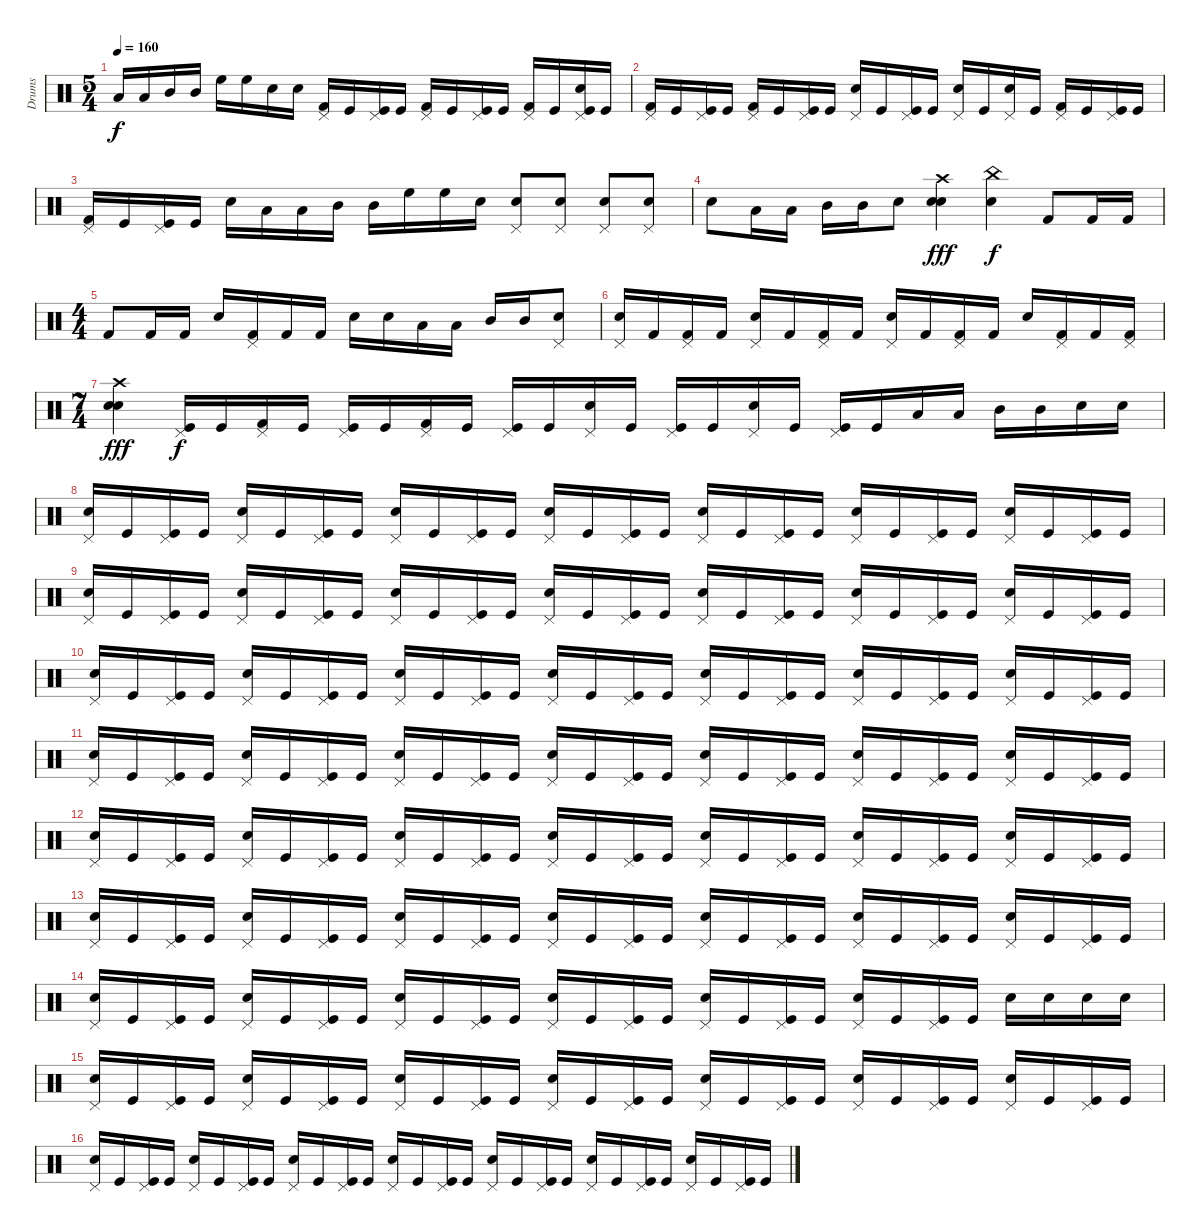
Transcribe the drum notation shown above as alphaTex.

\track ("Drums" "Drums") {instrument percussion}
\staff {score}
\articulation defaults
\ts (5 4)
\tempo 160
\clef neutral
\ks c "Low Tom (hit)".16{dy f} "Low Tom (hit)".16 "Mid Tom (hit)".16 "Mid Tom (hit)".16 "High Floor Tom (hit)".16 "High Floor Tom (hit)".16 "Electric Snare (hit)".16 "Electric Snare (hit)".16
("Pedal Hi-Hat (hit)" "Kick (hit) 2").16 "Kick (hit)".16 ("Pedal Hi-Hat (hit)" "Kick (hit)").16 "Kick (hit)".16 ("Pedal Hi-Hat (hit)" "Kick (hit) 2").16 "Kick (hit)".16 ("Pedal Hi-Hat (hit)" "Kick (hit)").16 "Kick (hit)".16 ("Pedal Hi-Hat (hit)" "Kick (hit) 2").16 "Kick (hit)".16 ("Pedal Hi-Hat (hit)" "Electric Snare (hit)" "Kick (hit)").16 "Kick (hit)".16 |
("Pedal Hi-Hat (hit)" "Kick (hit) 2").16 "Kick (hit)".16 ("Pedal Hi-Hat (hit)" "Kick (hit)").16 "Kick (hit)".16 ("Pedal Hi-Hat (hit)" "Kick (hit) 2").16 "Kick (hit)".16 ("Pedal Hi-Hat (hit)" "Kick (hit)").16 "Kick (hit)".16 ("Pedal Hi-Hat (hit)" "Electric Snare (hit)").16 "Kick (hit)".16 ("Pedal Hi-Hat (hit)" "Kick (hit)").16 "Kick (hit)".16 ("Pedal Hi-Hat (hit)" "Electric Snare (hit)").16 "Kick (hit)".16 ("Pedal Hi-Hat (hit)" "Electric Snare (hit)").16 "Kick (hit)".16 ("Pedal Hi-Hat (hit)" "Kick (hit) 2").16 "Kick (hit)".16 ("Pedal Hi-Hat (hit)" "Kick (hit)").16 "Kick (hit)".16 |
("Pedal Hi-Hat (hit)" "Kick (hit) 2").16 "Kick (hit)".16 ("Pedal Hi-Hat (hit)" "Kick (hit)").16 "Kick (hit)".16 "Electric Snare (hit)".16 "Low Tom (hit)".16 "Low Tom (hit)".16 "Mid Tom (hit)".16 "Mid Tom (hit)".16 "High Floor Tom (hit)".16 "High Floor Tom (hit)".16 "Electric Snare (hit)".16 ("Pedal Hi-Hat (hit)" "Electric Snare (hit)").8 ("Pedal Hi-Hat (hit)" "Electric Snare (hit)").8 ("Pedal Hi-Hat (hit)" "Electric Snare (hit)").8 ("Pedal Hi-Hat (hit)" "Electric Snare (hit)").8 |
"Electric Snare (hit)".8 "Low Tom (hit)".16 "Low Tom (hit)".16 "Mid Tom (hit)".16 "Mid Tom (hit)".16 "Electric Snare (hit)".8 ("Electric Snare (hit)" "Electric Snare (hit)" "Crash high (hit)").4{dy fff} ("Electric Snare (hit)" "China (hit)").4{dy f} "Kick (hit) 2".8 "Kick (hit) 2".16 "Kick (hit) 2".16 |
\ts (4 4)
"Kick (hit) 2".8 "Kick (hit) 2".16 "Kick (hit) 2".16 "Electric Snare (hit)".16 ("Pedal Hi-Hat (hit)" "Kick (hit) 2").16 "Kick (hit) 2".16 "Kick (hit) 2".16 "Electric Snare (hit)".16 "Electric Snare (hit)".16 "Low Tom (hit)".16 "Low Tom (hit)".16 "Mid Tom (hit)".16 "Mid Tom (hit)".16 ("Pedal Hi-Hat (hit)" "Electric Snare (hit)").8 |
("Pedal Hi-Hat (hit)" "Electric Snare (hit)").16 "Kick (hit) 2".16 ("Pedal Hi-Hat (hit)" "Kick (hit) 2").16 "Kick (hit) 2".16 ("Pedal Hi-Hat (hit)" "Electric Snare (hit)").16 "Kick (hit) 2".16 ("Pedal Hi-Hat (hit)" "Kick (hit) 2").16 "Kick (hit) 2".16 ("Pedal Hi-Hat (hit)" "Electric Snare (hit)").16 "Kick (hit) 2".16 ("Pedal Hi-Hat (hit)" "Kick (hit) 2").16 "Kick (hit) 2".16 "Electric Snare (hit)".16 ("Pedal Hi-Hat (hit)" "Kick (hit) 2").16 "Kick (hit) 2".16 ("Pedal Hi-Hat (hit)" "Kick (hit) 2").16 |
\ts (7 4)
("Electric Snare (hit)" "Electric Snare (hit)" "Crash high (hit)").4{dy fff} ("Pedal Hi-Hat (hit)" "Kick (hit)").16{dy f} "Kick (hit)".16 ("Pedal Hi-Hat (hit)" "Kick (hit) 2").16 "Kick (hit)".16 ("Pedal Hi-Hat (hit)" "Kick (hit)").16 "Kick (hit)".16 ("Pedal Hi-Hat (hit)" "Kick (hit) 2").16 "Kick (hit)".16 ("Pedal Hi-Hat (hit)" "Kick (hit)").16 "Kick (hit)".16 ("Pedal Hi-Hat (hit)" "Electric Snare (hit)").16 "Kick (hit)".16 ("Pedal Hi-Hat (hit)" "Kick (hit)").16 "Kick (hit)".16 ("Pedal Hi-Hat (hit)" "Electric Snare (hit)").16 "Kick (hit)".16 ("Pedal Hi-Hat (hit)" "Kick (hit)").16 "Kick (hit)".16 "Low Tom (hit)".16 "Low Tom (hit)".16 "Mid Tom (hit)".16 "Mid Tom (hit)".16 "Electric Snare (hit)".16 "Electric Snare (hit)".16 |
("Pedal Hi-Hat (hit)" "Electric Snare (hit)").16 "Kick (hit)".16 ("Pedal Hi-Hat (hit)" "Kick (hit)").16 "Kick (hit)".16 ("Pedal Hi-Hat (hit)" "Electric Snare (hit)").16 "Kick (hit)".16 ("Pedal Hi-Hat (hit)" "Kick (hit)").16 "Kick (hit)".16 ("Pedal Hi-Hat (hit)" "Electric Snare (hit)").16 "Kick (hit)".16 ("Pedal Hi-Hat (hit)" "Kick (hit)").16 "Kick (hit)".16 ("Pedal Hi-Hat (hit)" "Electric Snare (hit)").16 "Kick (hit)".16 ("Pedal Hi-Hat (hit)" "Kick (hit)").16 "Kick (hit)".16 ("Pedal Hi-Hat (hit)" "Electric Snare (hit)").16 "Kick (hit)".16 ("Pedal Hi-Hat (hit)" "Kick (hit)").16 "Kick (hit)".16 ("Pedal Hi-Hat (hit)" "Electric Snare (hit)").16 "Kick (hit)".16 ("Pedal Hi-Hat (hit)" "Kick (hit)").16 "Kick (hit)".16 ("Pedal Hi-Hat (hit)" "Electric Snare (hit)").16 "Kick (hit)".16 ("Pedal Hi-Hat (hit)" "Kick (hit)").16 "Kick (hit)".16 |
("Pedal Hi-Hat (hit)" "Electric Snare (hit)").16 "Kick (hit)".16 ("Pedal Hi-Hat (hit)" "Kick (hit)").16 "Kick (hit)".16 ("Pedal Hi-Hat (hit)" "Electric Snare (hit)").16 "Kick (hit)".16 ("Pedal Hi-Hat (hit)" "Kick (hit)").16 "Kick (hit)".16 ("Pedal Hi-Hat (hit)" "Electric Snare (hit)").16 "Kick (hit)".16 ("Pedal Hi-Hat (hit)" "Kick (hit)").16 "Kick (hit)".16 ("Pedal Hi-Hat (hit)" "Electric Snare (hit)").16 "Kick (hit)".16 ("Pedal Hi-Hat (hit)" "Kick (hit)").16 "Kick (hit)".16 ("Pedal Hi-Hat (hit)" "Electric Snare (hit)").16 "Kick (hit)".16 ("Pedal Hi-Hat (hit)" "Kick (hit)").16 "Kick (hit)".16 ("Pedal Hi-Hat (hit)" "Electric Snare (hit)").16 "Kick (hit)".16 ("Pedal Hi-Hat (hit)" "Kick (hit)").16 "Kick (hit)".16 ("Pedal Hi-Hat (hit)" "Electric Snare (hit)").16 "Kick (hit)".16 ("Pedal Hi-Hat (hit)" "Kick (hit)").16 "Kick (hit)".16 |
("Pedal Hi-Hat (hit)" "Electric Snare (hit)").16 "Kick (hit)".16 ("Pedal Hi-Hat (hit)" "Kick (hit)").16 "Kick (hit)".16 ("Pedal Hi-Hat (hit)" "Electric Snare (hit)").16 "Kick (hit)".16 ("Pedal Hi-Hat (hit)" "Kick (hit)").16 "Kick (hit)".16 ("Pedal Hi-Hat (hit)" "Electric Snare (hit)").16 "Kick (hit)".16 ("Pedal Hi-Hat (hit)" "Kick (hit)").16 "Kick (hit)".16 ("Pedal Hi-Hat (hit)" "Electric Snare (hit)").16 "Kick (hit)".16 ("Pedal Hi-Hat (hit)" "Kick (hit)").16 "Kick (hit)".16 ("Pedal Hi-Hat (hit)" "Electric Snare (hit)").16 "Kick (hit)".16 ("Pedal Hi-Hat (hit)" "Kick (hit)").16 "Kick (hit)".16 ("Pedal Hi-Hat (hit)" "Electric Snare (hit)").16 "Kick (hit)".16 ("Pedal Hi-Hat (hit)" "Kick (hit)").16 "Kick (hit)".16 ("Pedal Hi-Hat (hit)" "Electric Snare (hit)").16 "Kick (hit)".16 ("Pedal Hi-Hat (hit)" "Kick (hit)").16 "Kick (hit)".16 |
("Pedal Hi-Hat (hit)" "Electric Snare (hit)").16 "Kick (hit)".16 ("Pedal Hi-Hat (hit)" "Kick (hit)").16 "Kick (hit)".16 ("Pedal Hi-Hat (hit)" "Electric Snare (hit)").16 "Kick (hit)".16 ("Pedal Hi-Hat (hit)" "Kick (hit)").16 "Kick (hit)".16 ("Pedal Hi-Hat (hit)" "Electric Snare (hit)").16 "Kick (hit)".16 ("Pedal Hi-Hat (hit)" "Kick (hit)").16 "Kick (hit)".16 ("Pedal Hi-Hat (hit)" "Electric Snare (hit)").16 "Kick (hit)".16 ("Pedal Hi-Hat (hit)" "Kick (hit)").16 "Kick (hit)".16 ("Pedal Hi-Hat (hit)" "Electric Snare (hit)").16 "Kick (hit)".16 ("Pedal Hi-Hat (hit)" "Kick (hit)").16 "Kick (hit)".16 ("Pedal Hi-Hat (hit)" "Electric Snare (hit)").16 "Kick (hit)".16 ("Pedal Hi-Hat (hit)" "Kick (hit)").16 "Kick (hit)".16 ("Pedal Hi-Hat (hit)" "Electric Snare (hit)").16 "Kick (hit)".16 ("Pedal Hi-Hat (hit)" "Kick (hit)").16 "Kick (hit)".16 |
("Pedal Hi-Hat (hit)" "Electric Snare (hit)").16 "Kick (hit)".16 ("Pedal Hi-Hat (hit)" "Kick (hit)").16 "Kick (hit)".16 ("Pedal Hi-Hat (hit)" "Electric Snare (hit)").16 "Kick (hit)".16 ("Pedal Hi-Hat (hit)" "Kick (hit)").16 "Kick (hit)".16 ("Pedal Hi-Hat (hit)" "Electric Snare (hit)").16 "Kick (hit)".16 ("Pedal Hi-Hat (hit)" "Kick (hit)").16 "Kick (hit)".16 ("Pedal Hi-Hat (hit)" "Electric Snare (hit)").16 "Kick (hit)".16 ("Pedal Hi-Hat (hit)" "Kick (hit)").16 "Kick (hit)".16 ("Pedal Hi-Hat (hit)" "Electric Snare (hit)").16 "Kick (hit)".16 ("Pedal Hi-Hat (hit)" "Kick (hit)").16 "Kick (hit)".16 ("Pedal Hi-Hat (hit)" "Electric Snare (hit)").16 "Kick (hit)".16 ("Pedal Hi-Hat (hit)" "Kick (hit)").16 "Kick (hit)".16 ("Pedal Hi-Hat (hit)" "Electric Snare (hit)").16 "Kick (hit)".16 ("Pedal Hi-Hat (hit)" "Kick (hit)").16 "Kick (hit)".16 |
("Pedal Hi-Hat (hit)" "Electric Snare (hit)").16 "Kick (hit)".16 ("Pedal Hi-Hat (hit)" "Kick (hit)").16 "Kick (hit)".16 ("Pedal Hi-Hat (hit)" "Electric Snare (hit)").16 "Kick (hit)".16 ("Pedal Hi-Hat (hit)" "Kick (hit)").16 "Kick (hit)".16 ("Pedal Hi-Hat (hit)" "Electric Snare (hit)").16 "Kick (hit)".16 ("Pedal Hi-Hat (hit)" "Kick (hit)").16 "Kick (hit)".16 ("Pedal Hi-Hat (hit)" "Electric Snare (hit)").16 "Kick (hit)".16 ("Pedal Hi-Hat (hit)" "Kick (hit)").16 "Kick (hit)".16 ("Pedal Hi-Hat (hit)" "Electric Snare (hit)").16 "Kick (hit)".16 ("Pedal Hi-Hat (hit)" "Kick (hit)").16 "Kick (hit)".16 ("Pedal Hi-Hat (hit)" "Electric Snare (hit)").16 "Kick (hit)".16 ("Pedal Hi-Hat (hit)" "Kick (hit)").16 "Kick (hit)".16 ("Pedal Hi-Hat (hit)" "Electric Snare (hit)").16 "Kick (hit)".16 ("Pedal Hi-Hat (hit)" "Kick (hit)").16 "Kick (hit)".16 |
("Pedal Hi-Hat (hit)" "Electric Snare (hit)").16 "Kick (hit)".16 ("Pedal Hi-Hat (hit)" "Kick (hit)").16 "Kick (hit)".16 ("Pedal Hi-Hat (hit)" "Electric Snare (hit)").16 "Kick (hit)".16 ("Pedal Hi-Hat (hit)" "Kick (hit)").16 "Kick (hit)".16 ("Pedal Hi-Hat (hit)" "Electric Snare (hit)").16 "Kick (hit)".16 ("Pedal Hi-Hat (hit)" "Kick (hit)").16 "Kick (hit)".16 ("Pedal Hi-Hat (hit)" "Electric Snare (hit)").16 "Kick (hit)".16 ("Pedal Hi-Hat (hit)" "Kick (hit)").16 "Kick (hit)".16 ("Pedal Hi-Hat (hit)" "Electric Snare (hit)").16 "Kick (hit)".16 ("Pedal Hi-Hat (hit)" "Kick (hit)").16 "Kick (hit)".16 ("Pedal Hi-Hat (hit)" "Electric Snare (hit)").16 "Kick (hit)".16 ("Pedal Hi-Hat (hit)" "Kick (hit)").16 "Kick (hit)".16 "Electric Snare (hit)".16 "Electric Snare (hit)".16 "Electric Snare (hit)".16 "Electric Snare (hit)".16 |
("Pedal Hi-Hat (hit)" "Electric Snare (hit)").16 "Kick (hit)".16 ("Pedal Hi-Hat (hit)" "Kick (hit)").16 "Kick (hit)".16 ("Pedal Hi-Hat (hit)" "Electric Snare (hit)").16 "Kick (hit)".16 ("Pedal Hi-Hat (hit)" "Kick (hit)").16 "Kick (hit)".16 ("Pedal Hi-Hat (hit)" "Electric Snare (hit)").16 "Kick (hit)".16 ("Pedal Hi-Hat (hit)" "Kick (hit)").16 "Kick (hit)".16 ("Pedal Hi-Hat (hit)" "Electric Snare (hit)").16 "Kick (hit)".16 ("Pedal Hi-Hat (hit)" "Kick (hit)").16 "Kick (hit)".16 ("Pedal Hi-Hat (hit)" "Electric Snare (hit)").16 "Kick (hit)".16 ("Pedal Hi-Hat (hit)" "Kick (hit)").16 "Kick (hit)".16 ("Pedal Hi-Hat (hit)" "Electric Snare (hit)").16 "Kick (hit)".16 ("Pedal Hi-Hat (hit)" "Kick (hit)").16 "Kick (hit)".16 ("Pedal Hi-Hat (hit)" "Electric Snare (hit)").16 "Kick (hit)".16 ("Pedal Hi-Hat (hit)" "Kick (hit)").16 "Kick (hit)".16 |
("Pedal Hi-Hat (hit)" "Electric Snare (hit)").16 "Kick (hit)".16 ("Pedal Hi-Hat (hit)" "Kick (hit)").16 "Kick (hit)".16 ("Pedal Hi-Hat (hit)" "Electric Snare (hit)").16 "Kick (hit)".16 ("Pedal Hi-Hat (hit)" "Kick (hit)").16 "Kick (hit)".16 ("Pedal Hi-Hat (hit)" "Electric Snare (hit)").16 "Kick (hit)".16 ("Pedal Hi-Hat (hit)" "Kick (hit)").16 "Kick (hit)".16 ("Pedal Hi-Hat (hit)" "Electric Snare (hit)").16 "Kick (hit)".16 ("Pedal Hi-Hat (hit)" "Kick (hit)").16 "Kick (hit)".16 ("Pedal Hi-Hat (hit)" "Electric Snare (hit)").16 "Kick (hit)".16 ("Pedal Hi-Hat (hit)" "Kick (hit)").16 "Kick (hit)".16 ("Pedal Hi-Hat (hit)" "Electric Snare (hit)").16 "Kick (hit)".16 ("Pedal Hi-Hat (hit)" "Kick (hit)").16 "Kick (hit)".16 ("Pedal Hi-Hat (hit)" "Electric Snare (hit)").16 "Kick (hit)".16 ("Pedal Hi-Hat (hit)" "Kick (hit)").16 "Kick (hit)".16
